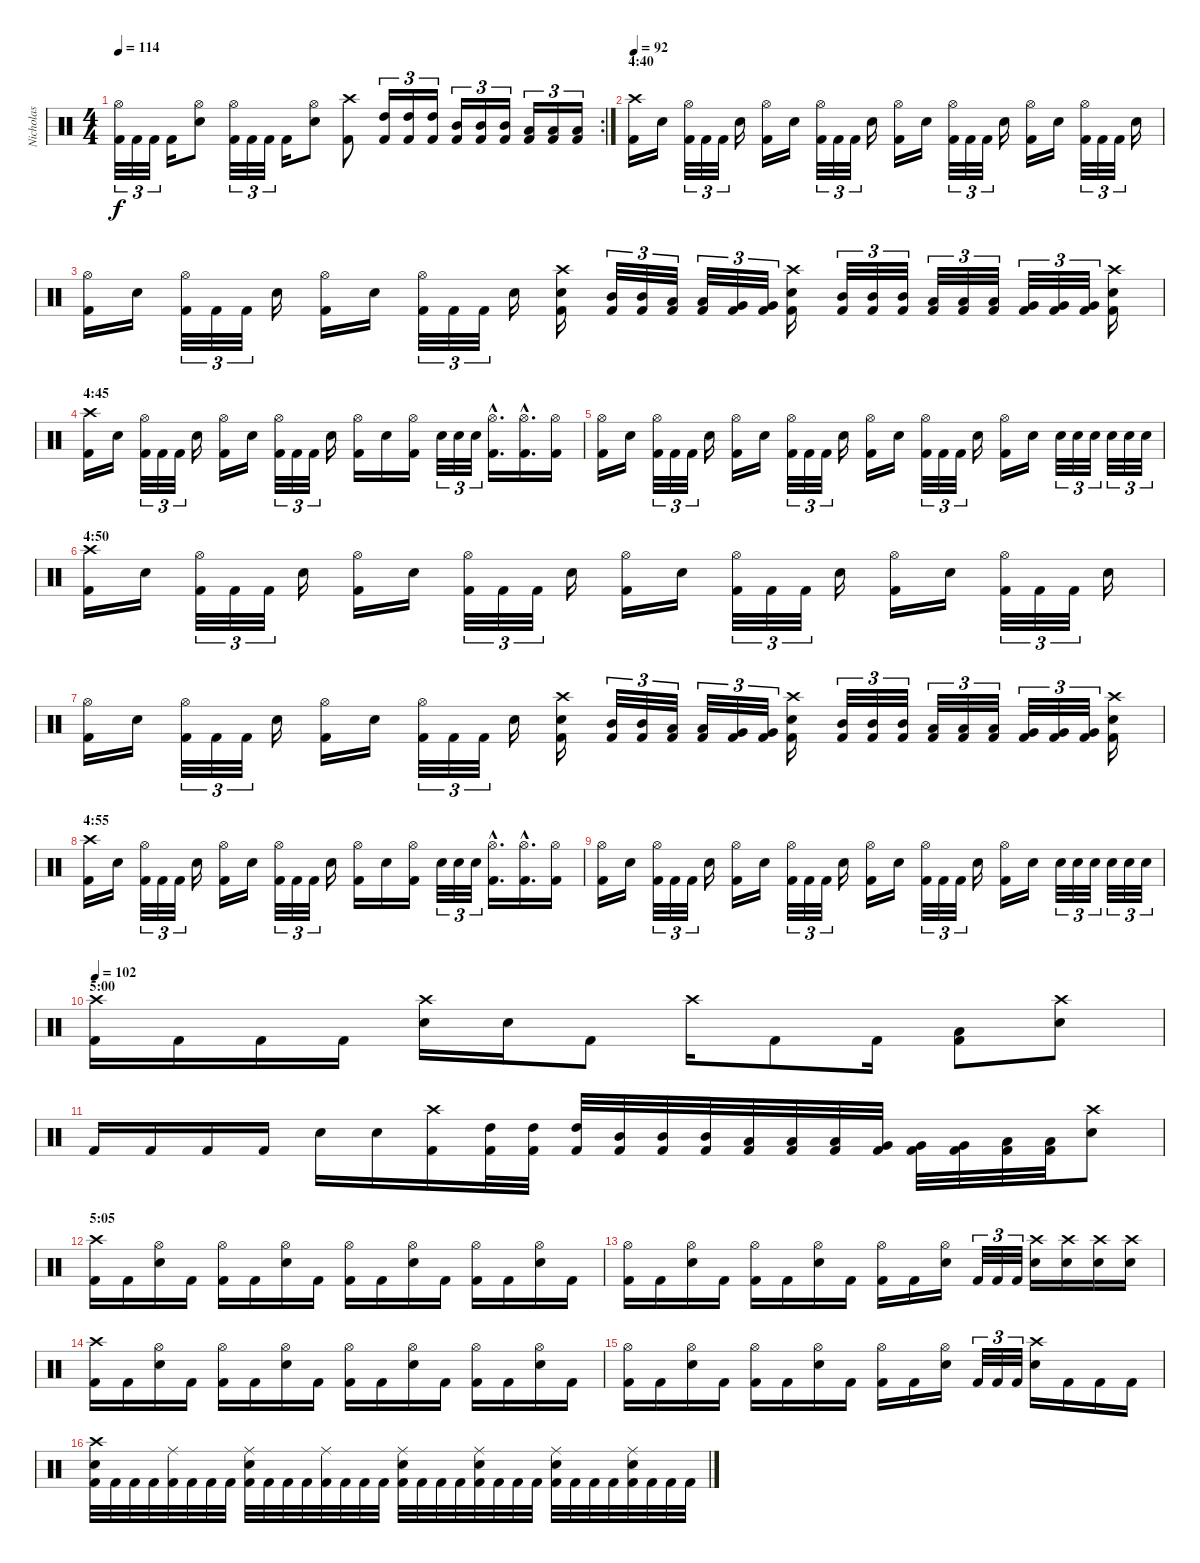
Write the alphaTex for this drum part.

\track ("Nicholas" "Nicholas") {instrument percussion}
\staff {score}
\articulation defaults
\rc 2
\ts (4 4)
\tempo 114
\clef neutral
\ks c
("Kick (hit) 2" "Hi-Hat (open)").32{tu (3 2) dy f} "Kick (hit) 2".32{tu (3 2)} "Kick (hit) 2".32{tu (3 2)} "Kick (hit) 2".16 ("Snare (hit) 2" "Hi-Hat (open)").8 ("Kick (hit) 2" "Hi-Hat (open)").32{tu (3 2)} "Kick (hit) 2".32{tu (3 2)} "Kick (hit) 2".32{tu (3 2)} "Kick (hit) 2".16 ("Snare (hit) 2" "Hi-Hat (open)").8 ("Kick (hit) 2" "Crash high (hit)").8 ("Kick (hit) 2" "High Tom (hit)").16{tu (3 2)} ("Kick (hit) 2" "High Tom (hit)").16{tu (3 2)} ("Kick (hit) 2" "High Tom (hit)").16{tu (3 2)} ("Kick (hit) 2" "Mid Tom (hit)").16{tu (3 2)} ("Kick (hit) 2" "Mid Tom (hit)").16{tu (3 2)} ("Kick (hit) 2" "Mid Tom (hit)").16{tu (3 2)} ("Kick (hit) 2" "Low Tom (hit)").16{tu (3 2)} ("Kick (hit) 2" "Low Tom (hit)").16{tu (3 2)} ("Kick (hit) 2" "Low Tom (hit)").16{tu (3 2)} |
\section ("" "4:40")
\tempo 92
("Kick (hit) 2" "Crash high (hit)").16 "Snare (hit) 2".16 ("Kick (hit) 2" "Hi-Hat (open)").32{tu (3 2)} "Kick (hit) 2".32{tu (3 2)} "Kick (hit) 2".32{tu (3 2)} "Snare (hit) 2".16 ("Kick (hit) 2" "Hi-Hat (open)").16 "Snare (hit) 2".16 ("Kick (hit) 2" "Hi-Hat (open)").32{tu (3 2)} "Kick (hit) 2".32{tu (3 2)} "Kick (hit) 2".32{tu (3 2)} "Snare (hit) 2".16 ("Kick (hit) 2" "Hi-Hat (open)").16 "Snare (hit) 2".16 ("Kick (hit) 2" "Hi-Hat (open)").32{tu (3 2)} "Kick (hit) 2".32{tu (3 2)} "Kick (hit) 2".32{tu (3 2)} "Snare (hit) 2".16 ("Kick (hit) 2" "Hi-Hat (open)").16 "Snare (hit) 2".16 ("Kick (hit) 2" "Hi-Hat (open)").32{tu (3 2)} "Kick (hit) 2".32{tu (3 2)} "Kick (hit) 2".32{tu (3 2)} "Snare (hit) 2".16 |
("Kick (hit) 2" "Hi-Hat (open)").16 "Snare (hit) 2".16 ("Kick (hit) 2" "Hi-Hat (open)").32{tu (3 2)} "Kick (hit) 2".32{tu (3 2)} "Kick (hit) 2".32{tu (3 2)} "Snare (hit) 2".16 ("Kick (hit) 2" "Hi-Hat (open)").16 "Snare (hit) 2".16 ("Kick (hit) 2" "Hi-Hat (open)").32{tu (3 2)} "Kick (hit) 2".32{tu (3 2)} "Kick (hit) 2".32{tu (3 2)} "Snare (hit) 2".16 ("Kick (hit) 2" "Snare (hit) 2" "Crash high (hit)").16 ("Kick (hit) 2" "Mid Tom (hit)").32{tu (3 2)} ("Kick (hit) 2" "Mid Tom (hit)").32{tu (3 2)} ("Kick (hit) 2" "Low Tom (hit)").32{tu (3 2)} ("Kick (hit) 2" "Low Tom (hit)").32{tu (3 2)} ("Kick (hit) 2" "Very Low Tom (hit)").32{tu (3 2)} ("Kick (hit) 2" "Very Low Tom (hit)").32{tu (3 2)} ("Kick (hit) 2" "Snare (hit) 2" "Crash high (hit)").16 ("Kick (hit) 2" "Mid Tom (hit)").32{tu (3 2)} ("Kick (hit) 2" "Mid Tom (hit)").32{tu (3 2)} ("Kick (hit) 2" "Mid Tom (hit)").32{tu (3 2)} ("Kick (hit) 2" "Low Tom (hit)").32{tu (3 2)} ("Kick (hit) 2" "Low Tom (hit)").32{tu (3 2)} ("Kick (hit) 2" "Low Tom (hit)").32{tu (3 2)} ("Kick (hit) 2" "Very Low Tom (hit)").32{tu (3 2)} ("Kick (hit) 2" "Very Low Tom (hit)").32{tu (3 2)} ("Kick (hit) 2" "Very Low Tom (hit)").32{tu (3 2)} ("Kick (hit) 2" "Snare (hit) 2" "Crash high (hit)").16 |
\section ("" "4:45")
("Kick (hit) 2" "Crash high (hit)").16 "Snare (hit) 2".16 ("Kick (hit) 2" "Hi-Hat (open)").32{tu (3 2)} "Kick (hit) 2".32{tu (3 2)} "Kick (hit) 2".32{tu (3 2)} "Snare (hit) 2".16 ("Kick (hit) 2" "Hi-Hat (open)").16 "Snare (hit) 2".16 ("Kick (hit) 2" "Hi-Hat (open)").32{tu (3 2)} "Kick (hit) 2".32{tu (3 2)} "Kick (hit) 2".32{tu (3 2)} "Snare (hit) 2".16 ("Kick (hit) 2" "Hi-Hat (open)").16 "Snare (hit) 2".16 ("Kick (hit) 2" "Hi-Hat (open)").16 "Snare (hit) 2".32{tu (3 2)} "Snare (hit) 2".32{tu (3 2)} "Snare (hit) 2".32{tu (3 2)} ("Kick (hit) 2"{hac} "Hi-Hat (open)"{hac}).16{d} ("Kick (hit) 2"{hac} "Hi-Hat (open)"{hac}).16{d} ("Kick (hit) 2" "Hi-Hat (open)").16 |
("Kick (hit) 2" "Hi-Hat (open)").16 "Snare (hit) 2".16 ("Kick (hit) 2" "Hi-Hat (open)").32{tu (3 2)} "Kick (hit) 2".32{tu (3 2)} "Kick (hit) 2".32{tu (3 2)} "Snare (hit) 2".16 ("Kick (hit) 2" "Hi-Hat (open)").16 "Snare (hit) 2".16 ("Kick (hit) 2" "Hi-Hat (open)").32{tu (3 2)} "Kick (hit) 2".32{tu (3 2)} "Kick (hit) 2".32{tu (3 2)} "Snare (hit) 2".16 ("Kick (hit) 2" "Hi-Hat (open)").16 "Snare (hit) 2".16 ("Kick (hit) 2" "Hi-Hat (open)").32{tu (3 2)} "Kick (hit) 2".32{tu (3 2)} "Kick (hit) 2".32{tu (3 2)} "Snare (hit) 2".16 ("Kick (hit) 2" "Hi-Hat (open)").16 "Snare (hit) 2".16 "Snare (hit) 2".32{tu (3 2)} "Snare (hit) 2".32{tu (3 2)} "Snare (hit) 2".32{tu (3 2)} "Snare (hit) 2".32{tu (3 2)} "Snare (hit) 2".32{tu (3 2)} "Snare (hit) 2".32{tu (3 2)} |
\section ("" "4:50")
("Kick (hit) 2" "Crash high (hit)").16 "Snare (hit) 2".16 ("Kick (hit) 2" "Hi-Hat (open)").32{tu (3 2)} "Kick (hit) 2".32{tu (3 2)} "Kick (hit) 2".32{tu (3 2)} "Snare (hit) 2".16 ("Kick (hit) 2" "Hi-Hat (open)").16 "Snare (hit) 2".16 ("Kick (hit) 2" "Hi-Hat (open)").32{tu (3 2)} "Kick (hit) 2".32{tu (3 2)} "Kick (hit) 2".32{tu (3 2)} "Snare (hit) 2".16 ("Kick (hit) 2" "Hi-Hat (open)").16 "Snare (hit) 2".16 ("Kick (hit) 2" "Hi-Hat (open)").32{tu (3 2)} "Kick (hit) 2".32{tu (3 2)} "Kick (hit) 2".32{tu (3 2)} "Snare (hit) 2".16 ("Kick (hit) 2" "Hi-Hat (open)").16 "Snare (hit) 2".16 ("Kick (hit) 2" "Hi-Hat (open)").32{tu (3 2)} "Kick (hit) 2".32{tu (3 2)} "Kick (hit) 2".32{tu (3 2)} "Snare (hit) 2".16 |
("Kick (hit) 2" "Hi-Hat (open)").16 "Snare (hit) 2".16 ("Kick (hit) 2" "Hi-Hat (open)").32{tu (3 2)} "Kick (hit) 2".32{tu (3 2)} "Kick (hit) 2".32{tu (3 2)} "Snare (hit) 2".16 ("Kick (hit) 2" "Hi-Hat (open)").16 "Snare (hit) 2".16 ("Kick (hit) 2" "Hi-Hat (open)").32{tu (3 2)} "Kick (hit) 2".32{tu (3 2)} "Kick (hit) 2".32{tu (3 2)} "Snare (hit) 2".16 ("Kick (hit) 2" "Snare (hit) 2" "Crash high (hit)").16 ("Kick (hit) 2" "Mid Tom (hit)").32{tu (3 2)} ("Kick (hit) 2" "Mid Tom (hit)").32{tu (3 2)} ("Kick (hit) 2" "Low Tom (hit)").32{tu (3 2)} ("Kick (hit) 2" "Low Tom (hit)").32{tu (3 2)} ("Kick (hit) 2" "Very Low Tom (hit)").32{tu (3 2)} ("Kick (hit) 2" "Very Low Tom (hit)").32{tu (3 2)} ("Kick (hit) 2" "Snare (hit) 2" "Crash high (hit)").16 ("Kick (hit) 2" "Mid Tom (hit)").32{tu (3 2)} ("Kick (hit) 2" "Mid Tom (hit)").32{tu (3 2)} ("Kick (hit) 2" "Mid Tom (hit)").32{tu (3 2)} ("Kick (hit) 2" "Low Tom (hit)").32{tu (3 2)} ("Kick (hit) 2" "Low Tom (hit)").32{tu (3 2)} ("Kick (hit) 2" "Low Tom (hit)").32{tu (3 2)} ("Kick (hit) 2" "Very Low Tom (hit)").32{tu (3 2)} ("Kick (hit) 2" "Very Low Tom (hit)").32{tu (3 2)} ("Kick (hit) 2" "Very Low Tom (hit)").32{tu (3 2)} ("Kick (hit) 2" "Snare (hit) 2" "Crash high (hit)").16 |
\section ("" "4:55")
("Kick (hit) 2" "Crash high (hit)").16 "Snare (hit) 2".16 ("Kick (hit) 2" "Hi-Hat (open)").32{tu (3 2)} "Kick (hit) 2".32{tu (3 2)} "Kick (hit) 2".32{tu (3 2)} "Snare (hit) 2".16 ("Kick (hit) 2" "Hi-Hat (open)").16 "Snare (hit) 2".16 ("Kick (hit) 2" "Hi-Hat (open)").32{tu (3 2)} "Kick (hit) 2".32{tu (3 2)} "Kick (hit) 2".32{tu (3 2)} "Snare (hit) 2".16 ("Kick (hit) 2" "Hi-Hat (open)").16 "Snare (hit) 2".16 ("Kick (hit) 2" "Hi-Hat (open)").16 "Snare (hit) 2".32{tu (3 2)} "Snare (hit) 2".32{tu (3 2)} "Snare (hit) 2".32{tu (3 2)} ("Kick (hit) 2"{hac} "Hi-Hat (open)"{hac}).16{d} ("Kick (hit) 2"{hac} "Hi-Hat (open)"{hac}).16{d} ("Kick (hit) 2" "Hi-Hat (open)").16 |
("Kick (hit) 2" "Hi-Hat (open)").16 "Snare (hit) 2".16 ("Kick (hit) 2" "Hi-Hat (open)").32{tu (3 2)} "Kick (hit) 2".32{tu (3 2)} "Kick (hit) 2".32{tu (3 2)} "Snare (hit) 2".16 ("Kick (hit) 2" "Hi-Hat (open)").16 "Snare (hit) 2".16 ("Kick (hit) 2" "Hi-Hat (open)").32{tu (3 2)} "Kick (hit) 2".32{tu (3 2)} "Kick (hit) 2".32{tu (3 2)} "Snare (hit) 2".16 ("Kick (hit) 2" "Hi-Hat (open)").16 "Snare (hit) 2".16 ("Kick (hit) 2" "Hi-Hat (open)").32{tu (3 2)} "Kick (hit) 2".32{tu (3 2)} "Kick (hit) 2".32{tu (3 2)} "Snare (hit) 2".16 ("Kick (hit) 2" "Hi-Hat (open)").16 "Snare (hit) 2".16 "Snare (hit) 2".32{tu (3 2)} "Snare (hit) 2".32{tu (3 2)} "Snare (hit) 2".32{tu (3 2)} "Snare (hit) 2".32{tu (3 2)} "Snare (hit) 2".32{tu (3 2)} "Snare (hit) 2".32{tu (3 2)} |
\section ("" "5:00")
\tempo 102
("Kick (hit) 2" "Crash high (hit)").16 "Kick (hit) 2".16 "Kick (hit) 2".16 "Kick (hit) 2".16 ("Snare (hit) 2" "Crash high (hit)").16 "Snare (hit) 2".16 "Kick (hit) 2".8 "Crash high (hit)".16 "Kick (hit) 2".8 "Kick (hit) 2".16 ("Kick (hit) 2" "Low Tom (hit)").8 ("Snare (hit) 2" "Crash high (hit)").8 |
"Kick (hit) 2".16 "Kick (hit) 2".16 "Kick (hit) 2".16 "Kick (hit) 2".16 "Snare (hit) 2".16 "Snare (hit) 2".16 ("Kick (hit) 2" "Crash high (hit)").16 ("Kick (hit) 2" "High Tom (hit)").32 ("Kick (hit) 2" "High Tom (hit)").32 ("Kick (hit) 2" "High Tom (hit)").32 ("Kick (hit) 2" "Mid Tom (hit)").32 ("Kick (hit) 2" "Mid Tom (hit)").32 ("Kick (hit) 2" "Mid Tom (hit)").32 ("Kick (hit) 2" "Low Tom (hit)").32 ("Kick (hit) 2" "Low Tom (hit)").32 ("Kick (hit) 2" "Low Tom (hit)").32 ("Kick (hit) 2" "Very Low Tom (hit)").32 ("Kick (hit) 2" "Very Low Tom (hit)").32 ("Kick (hit) 2" "Very Low Tom (hit)").32 ("Kick (hit) 2" "Low Floor Tom (hit)").32 ("Kick (hit) 2" "Low Floor Tom (hit)").32 ("Snare (hit) 2" "Crash high (hit)").8 |
\section ("" "5:05")
("Kick (hit) 2" "Crash high (hit)").16 "Kick (hit) 2".16 ("Snare (hit) 2" "Hi-Hat (open)").16 "Kick (hit) 2".16 ("Kick (hit) 2" "Hi-Hat (open)").16 "Kick (hit) 2".16 ("Snare (hit) 2" "Hi-Hat (open)").16 "Kick (hit) 2".16 ("Kick (hit) 2" "Hi-Hat (open)").16 "Kick (hit) 2".16 ("Snare (hit) 2" "Hi-Hat (open)").16 "Kick (hit) 2".16 ("Kick (hit) 2" "Hi-Hat (open)").16 "Kick (hit) 2".16 ("Snare (hit) 2" "Hi-Hat (open)").16 "Kick (hit) 2".16 |
("Kick (hit) 2" "Hi-Hat (open)").16 "Kick (hit) 2".16 ("Snare (hit) 2" "Hi-Hat (open)").16 "Kick (hit) 2".16 ("Kick (hit) 2" "Hi-Hat (open)").16 "Kick (hit) 2".16 ("Snare (hit) 2" "Hi-Hat (open)").16 "Kick (hit) 2".16 ("Kick (hit) 2" "Hi-Hat (open)").16 "Kick (hit) 2".16 ("Snare (hit) 2" "Hi-Hat (open)").16 "Kick (hit) 2".32{tu (3 2)} "Kick (hit) 2".32{tu (3 2)} "Kick (hit) 2".32{tu (3 2)} ("Snare (hit) 2" "Crash high (hit)").16 ("Snare (hit) 2" "Crash high (hit)").16 ("Snare (hit) 2" "Crash high (hit)").16 ("Snare (hit) 2" "Crash high (hit)").16 |
("Kick (hit) 2" "Crash high (hit)").16 "Kick (hit) 2".16 ("Snare (hit) 2" "Hi-Hat (open)").16 "Kick (hit) 2".16 ("Kick (hit) 2" "Hi-Hat (open)").16 "Kick (hit) 2".16 ("Snare (hit) 2" "Hi-Hat (open)").16 "Kick (hit) 2".16 ("Kick (hit) 2" "Hi-Hat (open)").16 "Kick (hit) 2".16 ("Snare (hit) 2" "Hi-Hat (open)").16 "Kick (hit) 2".16 ("Kick (hit) 2" "Hi-Hat (open)").16 "Kick (hit) 2".16 ("Snare (hit) 2" "Hi-Hat (open)").16 "Kick (hit) 2".16 |
("Kick (hit) 2" "Hi-Hat (open)").16 "Kick (hit) 2".16 ("Snare (hit) 2" "Hi-Hat (open)").16 "Kick (hit) 2".16 ("Kick (hit) 2" "Hi-Hat (open)").16 "Kick (hit) 2".16 ("Snare (hit) 2" "Hi-Hat (open)").16 "Kick (hit) 2".16 ("Kick (hit) 2" "Hi-Hat (open)").16 "Kick (hit) 2".16 ("Snare (hit) 2" "Hi-Hat (open)").16 "Kick (hit) 2".32{tu (3 2)} "Kick (hit) 2".32{tu (3 2)} "Kick (hit) 2".32{tu (3 2)} ("Snare (hit) 2" "Crash high (hit)").16 "Kick (hit) 2".16 "Kick (hit) 2".16 "Kick (hit) 2".16 |
("Kick (hit) 2" "Snare (hit) 2" "Crash high (hit)").32 "Kick (hit) 2".32 "Kick (hit) 2".32 "Kick (hit) 2".32 ("Kick (hit) 2" "Ride (middle)").32 "Kick (hit) 2".32 "Kick (hit) 2".32 "Kick (hit) 2".32 ("Kick (hit) 2" "Snare (hit) 2" "Ride (middle)").32 "Kick (hit) 2".32 "Kick (hit) 2".32 "Kick (hit) 2".32 ("Kick (hit) 2" "Ride (middle)").32 "Kick (hit) 2".32 "Kick (hit) 2".32 "Kick (hit) 2".32 ("Kick (hit) 2" "Snare (hit) 2" "Ride (middle)").32 "Kick (hit) 2".32 "Kick (hit) 2".32 "Kick (hit) 2".32 ("Kick (hit) 2" "Snare (hit) 2" "Ride (middle)").32 "Kick (hit) 2".32 "Kick (hit) 2".32 "Kick (hit) 2".32 ("Kick (hit) 2" "Snare (hit) 2" "Ride (middle)").32 "Kick (hit) 2".32 "Kick (hit) 2".32 "Kick (hit) 2".32 ("Kick (hit) 2" "Snare (hit) 2" "Ride (middle)").32 "Kick (hit) 2".32 "Kick (hit) 2".32 "Kick (hit) 2".32
